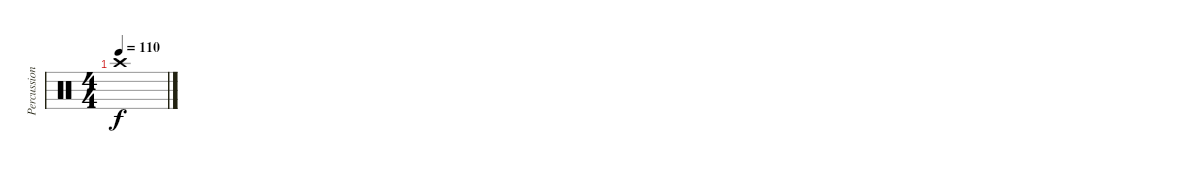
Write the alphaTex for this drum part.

\track ("Percussion" "Percussion") {instrument percussion}
\staff {score}
\articulation defaults
\ts (4 4)
\tempo 110
\clef neutral
\ks c "Crash high (hit)".1{dy f}
